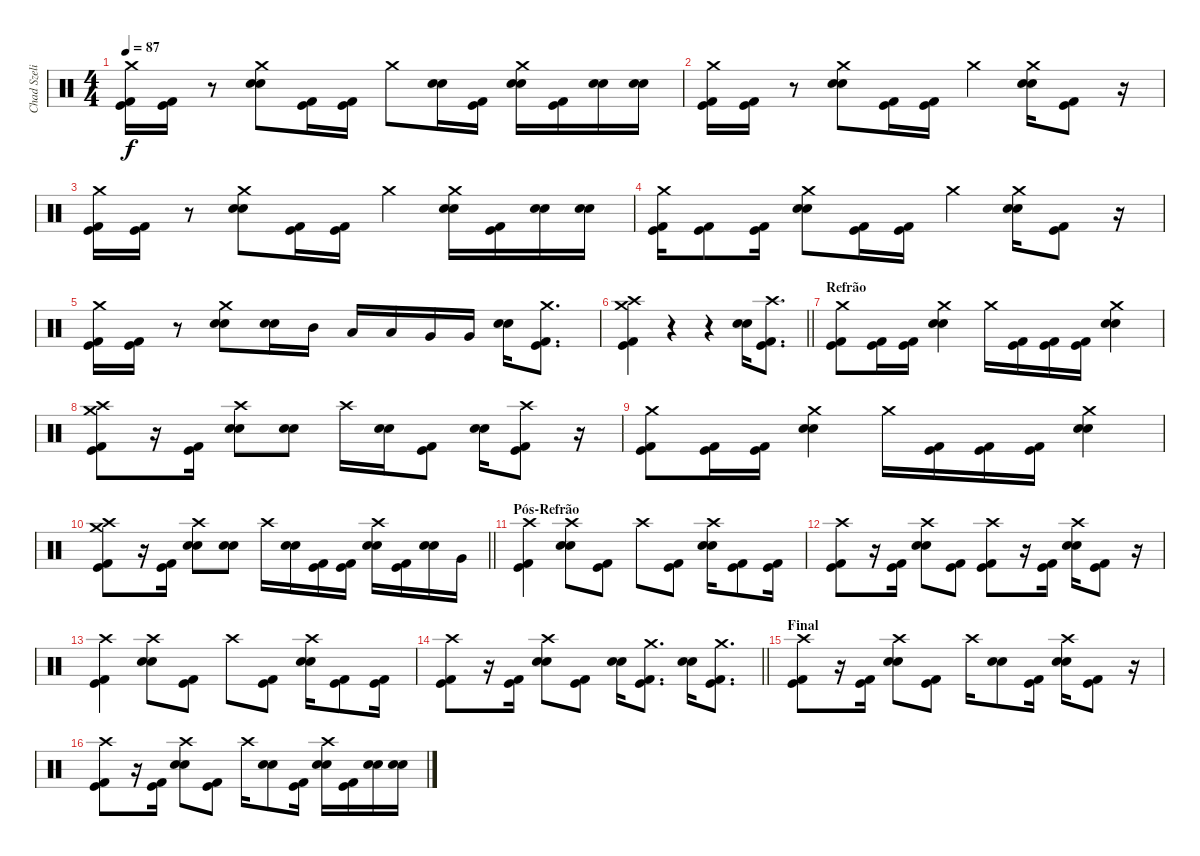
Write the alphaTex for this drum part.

\track ("Chad Szeliga" "Chad Szeli") {instrument percussion}
\staff {score}
\articulation defaults
\ts (4 4)
\tempo 87
\clef neutral
\ks c
("Crash medium (hit)" "Kick (hit) 2" "Kick (hit)").16{dy f} ("Kick (hit) 2" "Kick (hit)").16 r.8 ("Crash medium (hit)" "Snare (hit) 2" "Snare (hit) 2").8 ("Kick (hit) 2" "Kick (hit)").16 ("Kick (hit) 2" "Kick (hit)").16 "Crash medium (hit)".8 ("Snare (hit) 2" "Snare (hit) 2").16 ("Kick (hit) 2" "Kick (hit)").16 ("Crash medium (hit)" "Snare (hit) 2" "Snare (hit) 2").16 ("Kick (hit) 2" "Kick (hit)").16 ("Snare (hit) 2" "Snare (hit) 2").16 ("Snare (hit) 2" "Snare (hit) 2").16 |
("Crash medium (hit)" "Kick (hit) 2" "Kick (hit)").16 ("Kick (hit) 2" "Kick (hit)").16 r.8 ("Crash medium (hit)" "Snare (hit) 2" "Snare (hit) 2").8 ("Kick (hit) 2" "Kick (hit)").16 ("Kick (hit) 2" "Kick (hit)").16 "Crash medium (hit)".4 ("Crash medium (hit)" "Snare (hit) 2" "Snare (hit) 2").16 ("Kick (hit) 2" "Kick (hit)").8 r.16 |
("Crash medium (hit)" "Kick (hit) 2" "Kick (hit)").16 ("Kick (hit) 2" "Kick (hit)").16 r.8 ("Crash medium (hit)" "Snare (hit) 2" "Snare (hit) 2").8 ("Kick (hit) 2" "Kick (hit)").16 ("Kick (hit) 2" "Kick (hit)").16 "Crash medium (hit)".4 ("Crash medium (hit)" "Snare (hit) 2" "Snare (hit) 2").16 ("Kick (hit) 2" "Kick (hit)").16 ("Snare (hit) 2" "Snare (hit) 2").16 ("Snare (hit) 2" "Snare (hit) 2").16 |
("Crash medium (hit)" "Kick (hit) 2" "Kick (hit)").16 ("Kick (hit) 2" "Kick (hit)").8 ("Kick (hit) 2" "Kick (hit)").16 ("Crash medium (hit)" "Snare (hit) 2" "Snare (hit) 2").8 ("Kick (hit) 2" "Kick (hit)").16 ("Kick (hit) 2" "Kick (hit)").16 "Crash medium (hit)".4 ("Crash medium (hit)" "Snare (hit) 2" "Snare (hit) 2").16 ("Kick (hit) 2" "Kick (hit)").8 r.16 |
("Crash medium (hit)" "Kick (hit) 2" "Kick (hit)").16 ("Kick (hit) 2" "Kick (hit)").16 r.8 ("Crash medium (hit)" "Snare (hit) 2" "Snare (hit) 2").8 ("Snare (hit) 2" "Snare (hit) 2").16 "Mid Tom (hit)".16 "Low Tom (hit)".16 "Low Tom (hit)".16 "Very Low Tom (hit)".16 "Very Low Tom (hit)".16 ("Snare (hit) 2" "Snare (hit) 2").16 ("Crash medium (hit)" "Kick (hit) 2" "Kick (hit)").8{d} |
\barLineRight lightlight
("Crash high (hit)" "Kick (hit) 2" "Kick (hit)" "Crash medium (hit)").4 r.4 r.4 ("Snare (hit) 2" "Snare (hit) 2").16 ("Crash high (hit)" "Kick (hit) 2" "Kick (hit)").8{d} |
\section ("" "Refrão")
("Crash medium (hit)" "Kick (hit) 2" "Kick (hit)").8 ("Kick (hit) 2" "Kick (hit)").16 ("Kick (hit) 2" "Kick (hit)").16 ("Crash medium (hit)" "Snare (hit) 2" "Snare (hit) 2").4 "Crash medium (hit)".16 ("Kick (hit) 2" "Kick (hit)").16 ("Kick (hit) 2" "Kick (hit)").16 ("Kick (hit) 2" "Kick (hit)").16 ("Crash medium (hit)" "Snare (hit) 2" "Snare (hit) 2").4 |
("Crash high (hit)" "Kick (hit) 2" "Kick (hit)" "Crash medium (hit)").8 r.16 ("Kick (hit) 2" "Kick (hit)").16{beam Down} ("Crash high (hit)" "Snare (hit) 2" "Snare (hit) 2").8 ("Snare (hit) 2" "Snare (hit) 2").8 "Crash high (hit)".16 ("Snare (hit) 2" "Snare (hit) 2").16 ("Kick (hit) 2" "Kick (hit)").8 ("Snare (hit) 2" "Snare (hit) 2").16 ("Crash high (hit)" "Kick (hit) 2" "Kick (hit)").8 r.16 |
("Crash medium (hit)" "Kick (hit) 2" "Kick (hit)").8 ("Kick (hit) 2" "Kick (hit)").16 ("Kick (hit) 2" "Kick (hit)").16 ("Crash medium (hit)" "Snare (hit) 2" "Snare (hit) 2").4 "Crash medium (hit)".16 ("Kick (hit) 2" "Kick (hit)").16 ("Kick (hit) 2" "Kick (hit)").16 ("Kick (hit) 2" "Kick (hit)").16 ("Crash medium (hit)" "Snare (hit) 2" "Snare (hit) 2").4 |
\barLineRight lightlight
("Crash high (hit)" "Kick (hit) 2" "Kick (hit)" "Crash medium (hit)").8 r.16 ("Kick (hit) 2" "Kick (hit)").16{beam Down} ("Crash high (hit)" "Snare (hit) 2" "Snare (hit) 2").8 ("Snare (hit) 2" "Snare (hit) 2").8 "Crash high (hit)".16 ("Snare (hit) 2" "Snare (hit) 2").16 ("Kick (hit) 2" "Kick (hit)").16 ("Kick (hit) 2" "Kick (hit)").16 ("Crash high (hit)" "Snare (hit) 2" "Snare (hit) 2").16 ("Kick (hit) 2" "Kick (hit)").16 ("Snare (hit) 2" "Snare (hit) 2").16 "Very Low Tom (hit)".16 |
\section ("" "Pós-Refrão")
("Crash high (hit)" "Kick (hit) 2" "Kick (hit)").4 ("Crash high (hit)" "Snare (hit) 2" "Snare (hit) 2").8 ("Kick (hit) 2" "Kick (hit)").8 "Crash high (hit)".8 ("Kick (hit) 2" "Kick (hit)").8 ("Crash high (hit)" "Snare (hit) 2" "Snare (hit) 2").16 ("Kick (hit) 2" "Kick (hit)").8 ("Kick (hit) 2" "Kick (hit)").16 |
("Crash high (hit)" "Kick (hit) 2" "Kick (hit)").8 r.16 ("Kick (hit) 2" "Kick (hit)").16{beam Down} ("Crash high (hit)" "Snare (hit) 2" "Snare (hit) 2").8 ("Kick (hit) 2" "Kick (hit)").8 ("Crash high (hit)" "Kick (hit) 2" "Kick (hit)").8 r.16 ("Kick (hit) 2" "Kick (hit)").16{beam Down} ("Crash high (hit)" "Snare (hit) 2" "Snare (hit) 2").16 ("Kick (hit) 2" "Kick (hit)").8 r.16 |
("Crash high (hit)" "Kick (hit) 2" "Kick (hit)").4 ("Crash high (hit)" "Snare (hit) 2" "Snare (hit) 2").8 ("Kick (hit) 2" "Kick (hit)").8 "Crash high (hit)".8 ("Kick (hit) 2" "Kick (hit)").8 ("Crash high (hit)" "Snare (hit) 2" "Snare (hit) 2").16 ("Kick (hit) 2" "Kick (hit)").8 ("Kick (hit) 2" "Kick (hit)").16 |
\barLineRight lightlight
("Crash high (hit)" "Kick (hit) 2" "Kick (hit)").8 r.16 ("Kick (hit) 2" "Kick (hit)").16{beam Down} ("Crash high (hit)" "Snare (hit) 2" "Snare (hit) 2").8 ("Kick (hit) 2" "Kick (hit)").8 ("Snare (hit) 2" "Snare (hit) 2").16 ("Crash medium (hit)" "Kick (hit) 2" "Kick (hit)").8{d} ("Snare (hit) 2" "Snare (hit) 2").16 ("Crash medium (hit)" "Kick (hit) 2" "Kick (hit)").8{d} |
\section ("" "Final")
("Crash high (hit)" "Kick (hit) 2" "Kick (hit)").8 r.16 ("Kick (hit) 2" "Kick (hit)").16{beam Down} ("Crash high (hit)" "Snare (hit) 2" "Snare (hit) 2").8 ("Kick (hit) 2" "Kick (hit)").8 "Crash high (hit)".16 ("Snare (hit) 2" "Snare (hit) 2").8 ("Kick (hit) 2" "Kick (hit)").16 ("Crash high (hit)" "Snare (hit) 2" "Snare (hit) 2").16 ("Kick (hit) 2" "Kick (hit)").8 r.16 |
("Crash high (hit)" "Kick (hit) 2" "Kick (hit)").8 r.16 ("Kick (hit) 2" "Kick (hit)").16{beam Down} ("Crash high (hit)" "Snare (hit) 2" "Snare (hit) 2").8 ("Kick (hit) 2" "Kick (hit)").8 "Crash high (hit)".16 ("Snare (hit) 2" "Snare (hit) 2").8 ("Kick (hit) 2" "Kick (hit)").16 ("Crash high (hit)" "Snare (hit) 2" "Snare (hit) 2").16 ("Kick (hit) 2" "Kick (hit)").16 ("Snare (hit) 2" "Snare (hit) 2").16 ("Snare (hit) 2" "Snare (hit) 2").16
